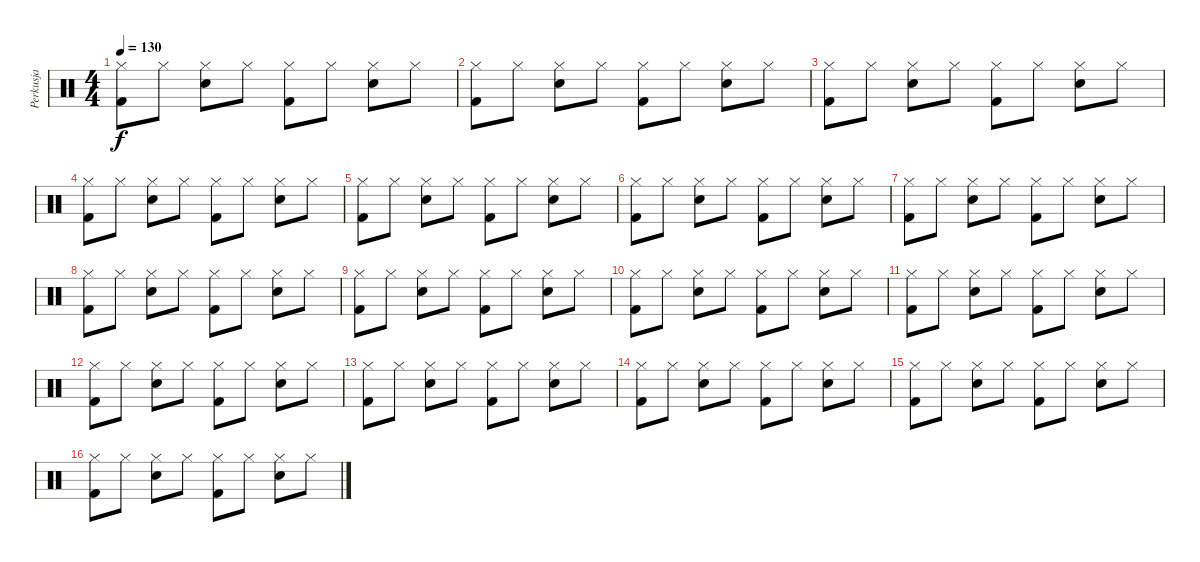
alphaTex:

\track ("Perkusja" "Perkusja") {instrument percussion}
\staff {score}
\articulation defaults
\ts (4 4)
\tempo 130
\clef neutral
\ks c
("Kick (hit) 2" "Hi-Hat (closed)").8{dy f} "Hi-Hat (closed)".8 ("Snare (hit) 2" "Hi-Hat (closed)").8 "Hi-Hat (closed)".8 ("Kick (hit) 2" "Hi-Hat (closed)").8 "Hi-Hat (closed)".8 ("Snare (hit) 2" "Hi-Hat (closed)").8 "Hi-Hat (closed)".8 |
("Kick (hit) 2" "Hi-Hat (closed)").8 "Hi-Hat (closed)".8 ("Snare (hit) 2" "Hi-Hat (closed)").8 "Hi-Hat (closed)".8 ("Kick (hit) 2" "Hi-Hat (closed)").8 "Hi-Hat (closed)".8 ("Snare (hit) 2" "Hi-Hat (closed)").8 "Hi-Hat (closed)".8 |
("Kick (hit) 2" "Hi-Hat (closed)").8 "Hi-Hat (closed)".8 ("Snare (hit) 2" "Hi-Hat (closed)").8 "Hi-Hat (closed)".8 ("Kick (hit) 2" "Hi-Hat (closed)").8 "Hi-Hat (closed)".8 ("Snare (hit) 2" "Hi-Hat (closed)").8 "Hi-Hat (closed)".8 |
("Kick (hit) 2" "Hi-Hat (closed)").8 "Hi-Hat (closed)".8 ("Snare (hit) 2" "Hi-Hat (closed)").8 "Hi-Hat (closed)".8 ("Kick (hit) 2" "Hi-Hat (closed)").8 "Hi-Hat (closed)".8 ("Snare (hit) 2" "Hi-Hat (closed)").8 "Hi-Hat (closed)".8 |
("Kick (hit) 2" "Hi-Hat (closed)").8 "Hi-Hat (closed)".8 ("Snare (hit) 2" "Hi-Hat (closed)").8 "Hi-Hat (closed)".8 ("Kick (hit) 2" "Hi-Hat (closed)").8 "Hi-Hat (closed)".8 ("Snare (hit) 2" "Hi-Hat (closed)").8 "Hi-Hat (closed)".8 |
("Kick (hit) 2" "Hi-Hat (closed)").8 "Hi-Hat (closed)".8 ("Snare (hit) 2" "Hi-Hat (closed)").8 "Hi-Hat (closed)".8 ("Kick (hit) 2" "Hi-Hat (closed)").8 "Hi-Hat (closed)".8 ("Snare (hit) 2" "Hi-Hat (closed)").8 "Hi-Hat (closed)".8 |
("Kick (hit) 2" "Hi-Hat (closed)").8 "Hi-Hat (closed)".8 ("Snare (hit) 2" "Hi-Hat (closed)").8 "Hi-Hat (closed)".8 ("Kick (hit) 2" "Hi-Hat (closed)").8 "Hi-Hat (closed)".8 ("Snare (hit) 2" "Hi-Hat (closed)").8 "Hi-Hat (closed)".8 |
("Kick (hit) 2" "Hi-Hat (closed)").8 "Hi-Hat (closed)".8 ("Snare (hit) 2" "Hi-Hat (closed)").8 "Hi-Hat (closed)".8 ("Kick (hit) 2" "Hi-Hat (closed)").8 "Hi-Hat (closed)".8 ("Snare (hit) 2" "Hi-Hat (closed)").8 "Hi-Hat (closed)".8 |
("Kick (hit) 2" "Hi-Hat (closed)").8 "Hi-Hat (closed)".8 ("Snare (hit) 2" "Hi-Hat (closed)").8 "Hi-Hat (closed)".8 ("Kick (hit) 2" "Hi-Hat (closed)").8 "Hi-Hat (closed)".8 ("Snare (hit) 2" "Hi-Hat (closed)").8 "Hi-Hat (closed)".8 |
("Kick (hit) 2" "Hi-Hat (closed)").8 "Hi-Hat (closed)".8 ("Snare (hit) 2" "Hi-Hat (closed)").8 "Hi-Hat (closed)".8 ("Kick (hit) 2" "Hi-Hat (closed)").8 "Hi-Hat (closed)".8 ("Snare (hit) 2" "Hi-Hat (closed)").8 "Hi-Hat (closed)".8 |
("Kick (hit) 2" "Hi-Hat (closed)").8 "Hi-Hat (closed)".8 ("Snare (hit) 2" "Hi-Hat (closed)").8 "Hi-Hat (closed)".8 ("Kick (hit) 2" "Hi-Hat (closed)").8 "Hi-Hat (closed)".8 ("Snare (hit) 2" "Hi-Hat (closed)").8 "Hi-Hat (closed)".8 |
("Kick (hit) 2" "Hi-Hat (closed)").8 "Hi-Hat (closed)".8 ("Snare (hit) 2" "Hi-Hat (closed)").8 "Hi-Hat (closed)".8 ("Kick (hit) 2" "Hi-Hat (closed)").8 "Hi-Hat (closed)".8 ("Snare (hit) 2" "Hi-Hat (closed)").8 "Hi-Hat (closed)".8 |
("Kick (hit) 2" "Hi-Hat (closed)").8 "Hi-Hat (closed)".8 ("Snare (hit) 2" "Hi-Hat (closed)").8 "Hi-Hat (closed)".8 ("Kick (hit) 2" "Hi-Hat (closed)").8 "Hi-Hat (closed)".8 ("Snare (hit) 2" "Hi-Hat (closed)").8 "Hi-Hat (closed)".8 |
("Kick (hit) 2" "Hi-Hat (closed)").8 "Hi-Hat (closed)".8 ("Snare (hit) 2" "Hi-Hat (closed)").8 "Hi-Hat (closed)".8 ("Kick (hit) 2" "Hi-Hat (closed)").8 "Hi-Hat (closed)".8 ("Snare (hit) 2" "Hi-Hat (closed)").8 "Hi-Hat (closed)".8 |
("Kick (hit) 2" "Hi-Hat (closed)").8 "Hi-Hat (closed)".8 ("Snare (hit) 2" "Hi-Hat (closed)").8 "Hi-Hat (closed)".8 ("Kick (hit) 2" "Hi-Hat (closed)").8 "Hi-Hat (closed)".8 ("Snare (hit) 2" "Hi-Hat (closed)").8 "Hi-Hat (closed)".8 |
("Kick (hit) 2" "Hi-Hat (closed)").8 "Hi-Hat (closed)".8 ("Snare (hit) 2" "Hi-Hat (closed)").8 "Hi-Hat (closed)".8 ("Kick (hit) 2" "Hi-Hat (closed)").8 "Hi-Hat (closed)".8 ("Snare (hit) 2" "Hi-Hat (closed)").8 "Hi-Hat (closed)".8
